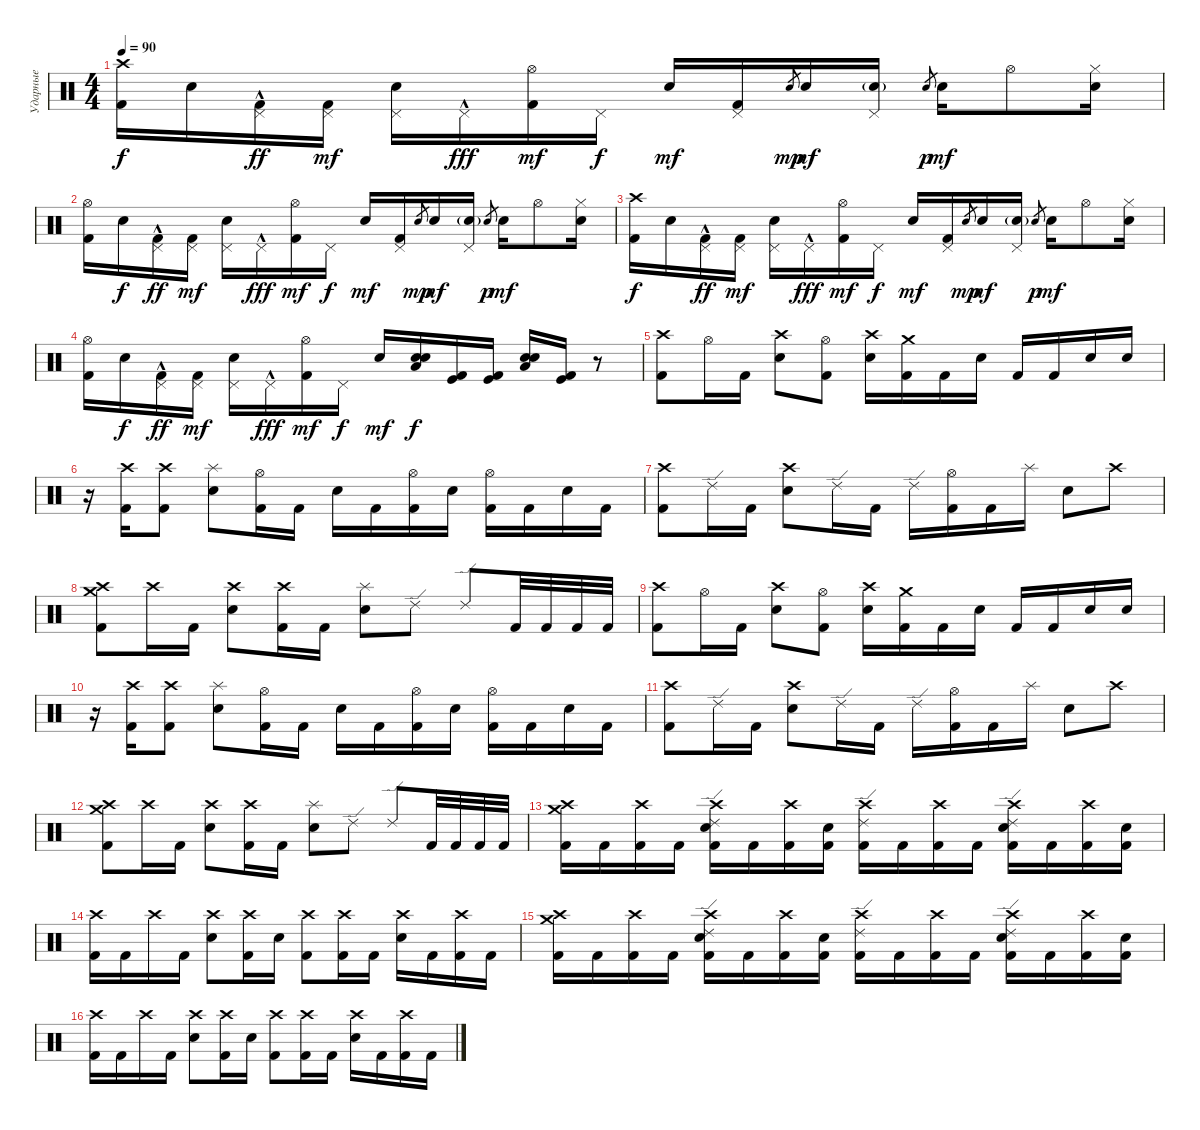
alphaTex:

\track ("Ударные" "Ударные") {instrument percussion}
\staff {score}
\articulation defaults
\ts (4 4)
\tempo 90
\clef neutral
\ks c
("Kick (hit) 2" "Crash high (hit)").16{dy f} "Electric Snare (hit)".16 ("Kick (hit) 2" "Pedal Hi-Hat (hit)"{hac}).16{dy ff} ("Kick (hit) 2" "Pedal Hi-Hat (hit)").16{dy mf} ("Electric Snare (hit)" "Pedal Hi-Hat (hit)").16 "Pedal Hi-Hat (hit)"{hac}.16{dy fff} ("Kick (hit) 2" "Hi-Hat (open)").16{dy mf} "Pedal Hi-Hat (hit)".16{dy f} "Electric Snare (hit)".16{dy mf} ("Kick (hit) 2" "Pedal Hi-Hat (hit)").16 "Electric Snare (hit)".8{gr dy mp} "Electric Snare (hit)".16{dy mf} ("Electric Snare (hit)"{g} "Pedal Hi-Hat (hit)").16 "Electric Snare (hit)".8{gr dy p} "Electric Snare (hit)".16{dy mf} "Hi-Hat (open)".8 ("Electric Snare (hit)" "Hi-Hat (closed)").16 |
("Kick (hit) 2" "Hi-Hat (open)").16 "Electric Snare (hit)".16{dy f} ("Kick (hit) 2" "Pedal Hi-Hat (hit)"{hac}).16{dy ff} ("Kick (hit) 2" "Pedal Hi-Hat (hit)").16{dy mf} ("Electric Snare (hit)" "Pedal Hi-Hat (hit)").16 "Pedal Hi-Hat (hit)"{hac}.16{dy fff} ("Kick (hit) 2" "Hi-Hat (open)").16{dy mf} "Pedal Hi-Hat (hit)".16{dy f} "Electric Snare (hit)".16{dy mf} ("Kick (hit) 2" "Pedal Hi-Hat (hit)").16 "Electric Snare (hit)".8{gr dy mp} "Electric Snare (hit)".16{dy mf} ("Electric Snare (hit)"{g} "Pedal Hi-Hat (hit)").16 "Electric Snare (hit)".8{gr dy p} "Electric Snare (hit)".16{dy mf} "Hi-Hat (open)".8 ("Electric Snare (hit)" "Hi-Hat (closed)").16 |
("Kick (hit) 2" "Crash high (hit)").16{dy f} "Electric Snare (hit)".16 ("Kick (hit) 2" "Pedal Hi-Hat (hit)"{hac}).16{dy ff} ("Kick (hit) 2" "Pedal Hi-Hat (hit)").16{dy mf} ("Electric Snare (hit)" "Pedal Hi-Hat (hit)").16 "Pedal Hi-Hat (hit)"{hac}.16{dy fff} ("Kick (hit) 2" "Hi-Hat (open)").16{dy mf} "Pedal Hi-Hat (hit)".16{dy f} "Electric Snare (hit)".16{dy mf} ("Kick (hit) 2" "Pedal Hi-Hat (hit)").16 "Electric Snare (hit)".8{gr dy mp} "Electric Snare (hit)".16{dy mf} ("Electric Snare (hit)"{g} "Pedal Hi-Hat (hit)").16 "Electric Snare (hit)".8{gr dy p} "Electric Snare (hit)".16{dy mf} "Hi-Hat (open)".8 ("Electric Snare (hit)" "Hi-Hat (closed)").16 |
("Kick (hit) 2" "Hi-Hat (open)").16 "Electric Snare (hit)".16{dy f} ("Kick (hit) 2" "Pedal Hi-Hat (hit)"{hac}).16{dy ff} ("Kick (hit) 2" "Pedal Hi-Hat (hit)").16{dy mf} ("Electric Snare (hit)" "Pedal Hi-Hat (hit)").16 "Pedal Hi-Hat (hit)"{hac}.16{dy fff} ("Kick (hit) 2" "Hi-Hat (open)").16{dy mf} "Pedal Hi-Hat (hit)".16{dy f} "Electric Snare (hit)".16{dy mf} ("Snare (hit) 2" "Low Floor Tom (hit)" "Electric Snare (hit)").16{dy f} ("Kick (hit) 2" "Kick (hit)").16 ("Kick (hit) 2" "Kick (hit)").16 ("Snare (hit) 2" "Low Floor Tom (hit)" "Electric Snare (hit)").16 ("Kick (hit) 2" "Kick (hit)").16 r.8 |
("Kick (hit) 2" "Crash high (hit)").8 "Hi-Hat (open)".16 "Kick (hit) 2".16 ("Electric Snare (hit)" "Crash high (hit)").8 ("Kick (hit) 2" "Hi-Hat (open)").8 ("Electric Snare (hit)" "Crash high (hit)").16 ("Kick (hit) 2" "Crash medium (hit)").16 "Kick (hit) 2".16 "Electric Snare (hit)".16 "Kick (hit) 2".16 "Kick (hit) 2".16 "Electric Snare (hit)".16 "Electric Snare (hit)".16 |
r.16 ("Kick (hit) 2" "Crash high (hit)").16 ("Kick (hit) 2" "Crash high (hit)").8 ("Electric Snare (hit)" "Splash (hit)").8 ("Kick (hit) 2" "Hi-Hat (open)").16 "Kick (hit) 2".16 "Electric Snare (hit)".16 "Kick (hit) 2".16 ("Kick (hit) 2" "Hi-Hat (open)").16 "Electric Snare (hit)".16 ("Kick (hit) 2" "Hi-Hat (open)").16 "Kick (hit) 2".16 "Electric Snare (hit)".16 "Kick (hit) 2".16 |
("Kick (hit) 2" "Crash high (hit)").8 "Ride (edge) 2".16 "Kick (hit) 2".16 ("Electric Snare (hit)" "Crash high (hit)").8 "Ride (edge) 2".16 "Kick (hit) 2".16 "Ride (edge) 2".16 ("Kick (hit) 2" "Hi-Hat (open)").16 "Kick (hit) 2".16 "Splash (hit)".16 "Electric Snare (hit)".8 "Crash high (hit)".8 |
("Kick (hit) 2" "Crash medium (hit)" "Crash high (hit)").8 "Crash high (hit)".16 "Kick (hit) 2".16 ("Electric Snare (hit)" "Crash high (hit)").8 ("Kick (hit) 2" "Crash high (hit)").16 "Kick (hit) 2".16 ("Electric Snare (hit)" "Splash (hit)").8 "Ride (edge) 2".8 "Ride (edge) 2".8 "Kick (hit) 2".32 "Kick (hit) 2".32 "Kick (hit) 2".32 "Kick (hit) 2".32 |
("Kick (hit) 2" "Crash high (hit)").8 "Hi-Hat (open)".16 "Kick (hit) 2".16 ("Electric Snare (hit)" "Crash high (hit)").8 ("Kick (hit) 2" "Hi-Hat (open)").8 ("Electric Snare (hit)" "Crash high (hit)").16 ("Kick (hit) 2" "Crash medium (hit)").16 "Kick (hit) 2".16 "Electric Snare (hit)".16 "Kick (hit) 2".16 "Kick (hit) 2".16 "Electric Snare (hit)".16 "Electric Snare (hit)".16 |
r.16 ("Kick (hit) 2" "Crash high (hit)").16 ("Kick (hit) 2" "Crash high (hit)").8 ("Electric Snare (hit)" "Splash (hit)").8 ("Kick (hit) 2" "Hi-Hat (open)").16 "Kick (hit) 2".16 "Electric Snare (hit)".16 "Kick (hit) 2".16 ("Kick (hit) 2" "Hi-Hat (open)").16 "Electric Snare (hit)".16 ("Kick (hit) 2" "Hi-Hat (open)").16 "Kick (hit) 2".16 "Electric Snare (hit)".16 "Kick (hit) 2".16 |
("Kick (hit) 2" "Crash high (hit)").8 "Ride (edge) 2".16 "Kick (hit) 2".16 ("Electric Snare (hit)" "Crash high (hit)").8 "Ride (edge) 2".16 "Kick (hit) 2".16 "Ride (edge) 2".16 ("Kick (hit) 2" "Hi-Hat (open)").16 "Kick (hit) 2".16 "Splash (hit)".16 "Electric Snare (hit)".8 "Crash high (hit)".8 |
("Kick (hit) 2" "Crash medium (hit)" "Crash high (hit)").8 "Crash high (hit)".16 "Kick (hit) 2".16 ("Electric Snare (hit)" "Crash high (hit)").8 ("Kick (hit) 2" "Crash high (hit)").16 "Kick (hit) 2".16 ("Electric Snare (hit)" "Splash (hit)").8 "Ride (edge) 2".8 "Ride (edge) 2".8 "Kick (hit) 2".32 "Kick (hit) 2".32 "Kick (hit) 2".32 "Kick (hit) 2".32 |
("Kick (hit) 2" "Crash medium (hit)" "Crash high (hit)").16 "Kick (hit) 2".16 ("Kick (hit) 2" "Crash high (hit)").16 "Kick (hit) 2".16 ("Kick (hit) 2" "Electric Snare (hit)" "Ride (edge) 2" "Crash high (hit)").16 "Kick (hit) 2".16 ("Kick (hit) 2" "Crash high (hit)").16 ("Kick (hit) 2" "Electric Snare (hit)").16 ("Kick (hit) 2" "Ride (edge) 2" "Crash high (hit)").16 "Kick (hit) 2".16 ("Kick (hit) 2" "Crash high (hit)").16 "Kick (hit) 2".16 ("Kick (hit) 2" "Electric Snare (hit)" "Ride (edge) 2" "Crash high (hit)").16 "Kick (hit) 2".16 ("Kick (hit) 2" "Crash high (hit)").16 ("Kick (hit) 2" "Electric Snare (hit)").16 |
("Kick (hit) 2" "Crash high (hit)").16 "Kick (hit) 2".16 "Crash high (hit)".16 "Kick (hit) 2".16 ("Electric Snare (hit)" "Crash high (hit)").8 ("Kick (hit) 2" "Crash high (hit)").16 "Electric Snare (hit)".16 ("Kick (hit) 2" "Crash high (hit)").8 ("Kick (hit) 2" "Crash high (hit)").16 "Kick (hit) 2".16 ("Electric Snare (hit)" "Crash high (hit)").16 "Kick (hit) 2".16 ("Kick (hit) 2" "Crash high (hit)").16 "Kick (hit) 2".16 |
("Kick (hit) 2" "Crash medium (hit)" "Crash high (hit)").16 "Kick (hit) 2".16 ("Kick (hit) 2" "Crash high (hit)").16 "Kick (hit) 2".16 ("Kick (hit) 2" "Electric Snare (hit)" "Ride (edge) 2" "Crash high (hit)").16 "Kick (hit) 2".16 ("Kick (hit) 2" "Crash high (hit)").16 ("Kick (hit) 2" "Electric Snare (hit)").16 ("Kick (hit) 2" "Ride (edge) 2" "Crash high (hit)").16 "Kick (hit) 2".16 ("Kick (hit) 2" "Crash high (hit)").16 "Kick (hit) 2".16 ("Kick (hit) 2" "Electric Snare (hit)" "Ride (edge) 2" "Crash high (hit)").16 "Kick (hit) 2".16 ("Kick (hit) 2" "Crash high (hit)").16 ("Kick (hit) 2" "Electric Snare (hit)").16 |
("Kick (hit) 2" "Crash high (hit)").16 "Kick (hit) 2".16 "Crash high (hit)".16 "Kick (hit) 2".16 ("Electric Snare (hit)" "Crash high (hit)").8 ("Kick (hit) 2" "Crash high (hit)").16 "Electric Snare (hit)".16 ("Kick (hit) 2" "Crash high (hit)").8 ("Kick (hit) 2" "Crash high (hit)").16 "Kick (hit) 2".16 ("Electric Snare (hit)" "Crash high (hit)").16 "Kick (hit) 2".16 ("Kick (hit) 2" "Crash high (hit)").16 "Kick (hit) 2".16
